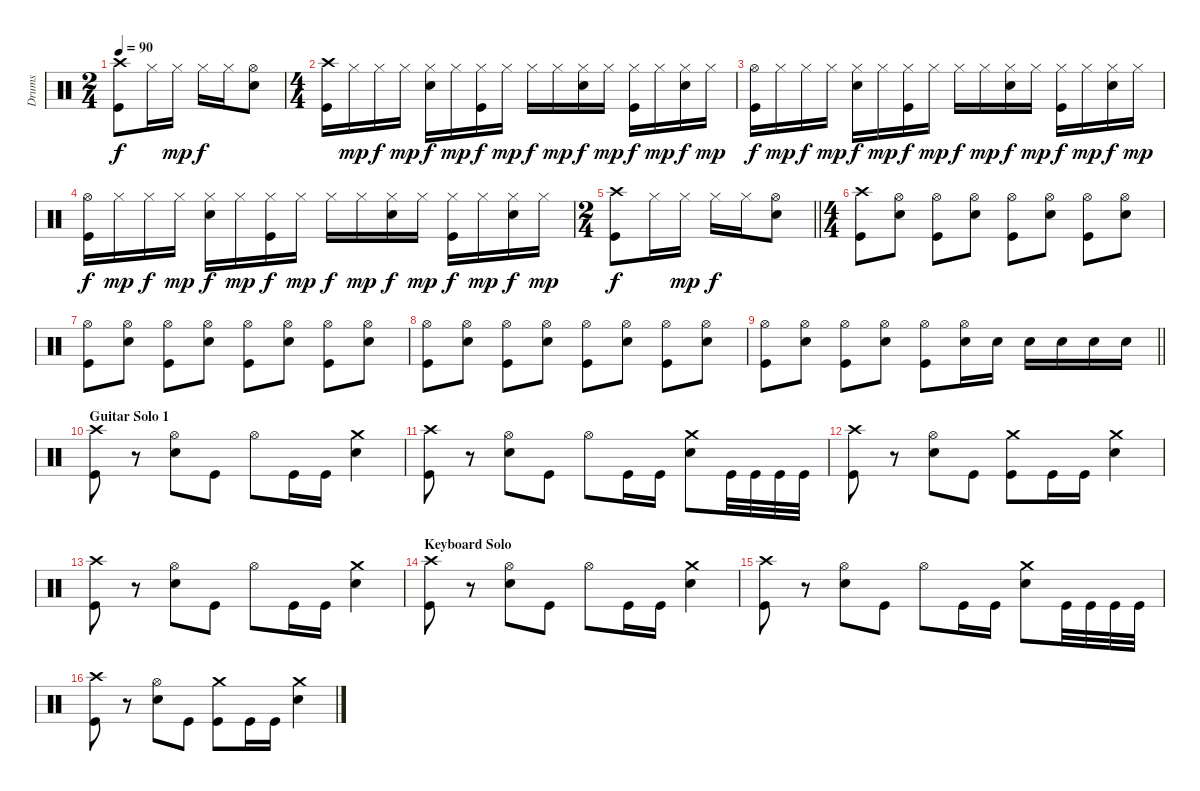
\track ("Drums" "Drums") {instrument percussion}
\staff {score}
\articulation defaults
\ts (2 4)
\tempo 90
\clef neutral
\ks c
("Crash high (hit)" "Kick (hit)").8{dy f} "Hi-Hat (closed)".16 "Hi-Hat (closed)".16{dy mp} "Hi-Hat (closed)".16{dy f} "Hi-Hat (closed)".16 ("Hi-Hat (open)" "Electric Snare (hit)").8 |
\ts (4 4)
("Crash high (hit)" "Kick (hit)").16 "Hi-Hat (closed)".16{dy mp} "Hi-Hat (closed)".16{dy f} "Hi-Hat (closed)".16{dy mp} ("Hi-Hat (closed)" "Electric Snare (hit)").16{dy f} "Hi-Hat (closed)".16{dy mp} ("Hi-Hat (closed)" "Kick (hit)").16{dy f} "Hi-Hat (closed)".16{dy mp} "Hi-Hat (closed)".16{dy f} "Hi-Hat (closed)".16{dy mp} ("Hi-Hat (closed)" "Electric Snare (hit)").16{dy f} "Hi-Hat (closed)".16{dy mp} ("Hi-Hat (closed)" "Kick (hit)").16{dy f} "Hi-Hat (closed)".16{dy mp} ("Hi-Hat (closed)" "Electric Snare (hit)").16{dy f} "Hi-Hat (closed)".16{dy mp} |
("Hi-Hat (open)" "Kick (hit)").16{dy f} "Hi-Hat (closed)".16{dy mp} "Hi-Hat (closed)".16{dy f} "Hi-Hat (closed)".16{dy mp} ("Hi-Hat (closed)" "Electric Snare (hit)").16{dy f} "Hi-Hat (closed)".16{dy mp} ("Hi-Hat (closed)" "Kick (hit)").16{dy f} "Hi-Hat (closed)".16{dy mp} "Hi-Hat (closed)".16{dy f} "Hi-Hat (closed)".16{dy mp} ("Hi-Hat (closed)" "Electric Snare (hit)").16{dy f} "Hi-Hat (closed)".16{dy mp} ("Hi-Hat (closed)" "Kick (hit)").16{dy f} "Hi-Hat (closed)".16{dy mp} ("Hi-Hat (closed)" "Electric Snare (hit)").16{dy f} "Hi-Hat (closed)".16{dy mp} |
("Hi-Hat (open)" "Kick (hit)").16{dy f} "Hi-Hat (closed)".16{dy mp} "Hi-Hat (closed)".16{dy f} "Hi-Hat (closed)".16{dy mp} ("Hi-Hat (closed)" "Electric Snare (hit)").16{dy f} "Hi-Hat (closed)".16{dy mp} ("Hi-Hat (closed)" "Kick (hit)").16{dy f} "Hi-Hat (closed)".16{dy mp} "Hi-Hat (closed)".16{dy f} "Hi-Hat (closed)".16{dy mp} ("Hi-Hat (closed)" "Electric Snare (hit)").16{dy f} "Hi-Hat (closed)".16{dy mp} ("Hi-Hat (closed)" "Kick (hit)").16{dy f} "Hi-Hat (closed)".16{dy mp} ("Hi-Hat (closed)" "Electric Snare (hit)").16{dy f} "Hi-Hat (closed)".16{dy mp} |
\ts (2 4)
\barLineRight lightlight
("Crash high (hit)" "Kick (hit)").8{dy f} "Hi-Hat (closed)".16 "Hi-Hat (closed)".16{dy mp} "Hi-Hat (closed)".16{dy f} "Hi-Hat (closed)".16 ("Hi-Hat (open)" "Electric Snare (hit)").8 |
\ts (4 4)
("Crash high (hit)" "Kick (hit)").8 ("Hi-Hat (open)" "Electric Snare (hit)").8 ("Hi-Hat (open)" "Kick (hit)").8 ("Hi-Hat (open)" "Electric Snare (hit)").8 ("Hi-Hat (open)" "Kick (hit)").8 ("Hi-Hat (open)" "Electric Snare (hit)").8 ("Hi-Hat (open)" "Kick (hit)").8 ("Hi-Hat (open)" "Electric Snare (hit)").8 |
("Hi-Hat (open)" "Kick (hit)").8 ("Hi-Hat (open)" "Electric Snare (hit)").8 ("Hi-Hat (open)" "Kick (hit)").8 ("Hi-Hat (open)" "Electric Snare (hit)").8 ("Hi-Hat (open)" "Kick (hit)").8 ("Hi-Hat (open)" "Electric Snare (hit)").8 ("Hi-Hat (open)" "Kick (hit)").8 ("Hi-Hat (open)" "Electric Snare (hit)").8 |
("Hi-Hat (open)" "Kick (hit)").8 ("Hi-Hat (open)" "Electric Snare (hit)").8 ("Hi-Hat (open)" "Kick (hit)").8 ("Hi-Hat (open)" "Electric Snare (hit)").8 ("Hi-Hat (open)" "Kick (hit)").8 ("Hi-Hat (open)" "Electric Snare (hit)").8 ("Hi-Hat (open)" "Kick (hit)").8 ("Hi-Hat (open)" "Electric Snare (hit)").8 |
\barLineRight lightlight
("Hi-Hat (open)" "Kick (hit)").8 ("Hi-Hat (open)" "Electric Snare (hit)").8 ("Hi-Hat (open)" "Kick (hit)").8 ("Hi-Hat (open)" "Electric Snare (hit)").8 ("Hi-Hat (open)" "Kick (hit)").8 ("Hi-Hat (open)" "Electric Snare (hit)").16 "Electric Snare (hit)".16 "Electric Snare (hit)".16 "Electric Snare (hit)".16 "Electric Snare (hit)".16 "Electric Snare (hit)".16 |
\section ("" "Guitar Solo 1")
("Crash high (hit)" "Kick (hit)").8 r.8 ("Hi-Hat (open)" "Electric Snare (hit)").8 "Kick (hit)".8 "Hi-Hat (open)".8 "Kick (hit)".16 "Kick (hit)".16 ("Crash medium (hit)" "Electric Snare (hit)").4 |
("Crash high (hit)" "Kick (hit)").8 r.8 ("Hi-Hat (open)" "Electric Snare (hit)").8 "Kick (hit)".8 "Hi-Hat (open)".8 "Kick (hit)".16 "Kick (hit)".16 ("Crash medium (hit)" "Electric Snare (hit)").8 "Kick (hit)".32 "Kick (hit)".32 "Kick (hit)".32 "Kick (hit)".32 |
("Crash high (hit)" "Kick (hit)").8 r.8 ("Hi-Hat (open)" "Electric Snare (hit)").8 "Kick (hit)".8 ("Crash medium (hit)" "Kick (hit)").8 "Kick (hit)".16 "Kick (hit)".16 ("Crash medium (hit)" "Electric Snare (hit)").4 |
("Crash high (hit)" "Kick (hit)").8 r.8 ("Hi-Hat (open)" "Electric Snare (hit)").8 "Kick (hit)".8 "Hi-Hat (open)".8 "Kick (hit)".16 "Kick (hit)".16 ("Crash medium (hit)" "Electric Snare (hit)").4 |
\section ("" "Keyboard Solo")
("Crash high (hit)" "Kick (hit)").8 r.8 ("Hi-Hat (open)" "Electric Snare (hit)").8 "Kick (hit)".8 "Hi-Hat (open)".8 "Kick (hit)".16 "Kick (hit)".16 ("Crash medium (hit)" "Electric Snare (hit)").4 |
("Crash high (hit)" "Kick (hit)").8 r.8 ("Hi-Hat (open)" "Electric Snare (hit)").8 "Kick (hit)".8 "Hi-Hat (open)".8 "Kick (hit)".16 "Kick (hit)".16 ("Crash medium (hit)" "Electric Snare (hit)").8 "Kick (hit)".32 "Kick (hit)".32 "Kick (hit)".32 "Kick (hit)".32 |
("Crash high (hit)" "Kick (hit)").8 r.8 ("Hi-Hat (open)" "Electric Snare (hit)").8 "Kick (hit)".8 ("Crash medium (hit)" "Kick (hit)").8 "Kick (hit)".16 "Kick (hit)".16 ("Crash medium (hit)" "Electric Snare (hit)").4
